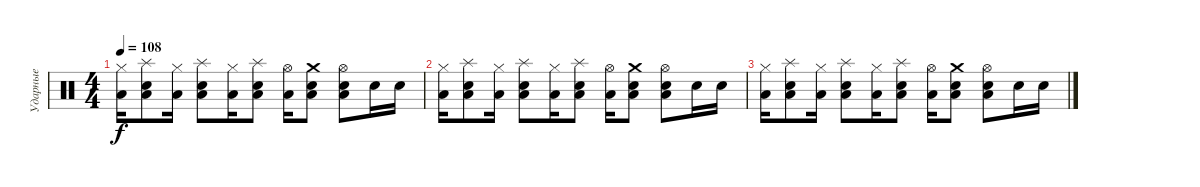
\track ("Ударные" "Ударные") {instrument percussion}
\staff {score}
\articulation defaults
\ts (4 4)
\tempo 108
\clef neutral
\ks c
("Low Floor Tom (hit)" "Hi-Hat (closed)").16{dy f} ("Low Floor Tom (hit)" "Electric Snare (hit)" "Splash (hit)").8 ("Low Floor Tom (hit)" "Hi-Hat (closed)").16 ("Low Floor Tom (hit)" "Electric Snare (hit)" "Splash (hit)").8 ("Low Floor Tom (hit)" "Hi-Hat (closed)").16 ("Low Floor Tom (hit)" "Electric Snare (hit)" "Splash (hit)").8 ("Low Floor Tom (hit)" "Hi-Hat (open)").16 ("Low Floor Tom (hit)" "Electric Snare (hit)" "Crash medium (hit)").8 ("Low Floor Tom (hit)" "Electric Snare (hit)" "Hi-Hat (open)").8 "Electric Snare (hit)".16 "Electric Snare (hit)".16 |
("Low Floor Tom (hit)" "Hi-Hat (closed)").16 ("Low Floor Tom (hit)" "Electric Snare (hit)" "Splash (hit)").8 ("Low Floor Tom (hit)" "Hi-Hat (closed)").16 ("Low Floor Tom (hit)" "Electric Snare (hit)" "Splash (hit)").8 ("Low Floor Tom (hit)" "Hi-Hat (closed)").16 ("Low Floor Tom (hit)" "Electric Snare (hit)" "Splash (hit)").8 ("Low Floor Tom (hit)" "Hi-Hat (open)").16 ("Low Floor Tom (hit)" "Electric Snare (hit)" "Crash medium (hit)").8 ("Low Floor Tom (hit)" "Electric Snare (hit)" "Hi-Hat (open)").8 "Electric Snare (hit)".16 "Electric Snare (hit)".16 |
("Low Floor Tom (hit)" "Hi-Hat (closed)").16 ("Low Floor Tom (hit)" "Electric Snare (hit)" "Splash (hit)").8 ("Low Floor Tom (hit)" "Hi-Hat (closed)").16 ("Low Floor Tom (hit)" "Electric Snare (hit)" "Splash (hit)").8 ("Low Floor Tom (hit)" "Hi-Hat (closed)").16 ("Low Floor Tom (hit)" "Electric Snare (hit)" "Splash (hit)").8 ("Low Floor Tom (hit)" "Hi-Hat (open)").16 ("Low Floor Tom (hit)" "Electric Snare (hit)" "Crash medium (hit)").8 ("Low Floor Tom (hit)" "Electric Snare (hit)" "Hi-Hat (open)").8 "Electric Snare (hit)".16 "Electric Snare (hit)".16
